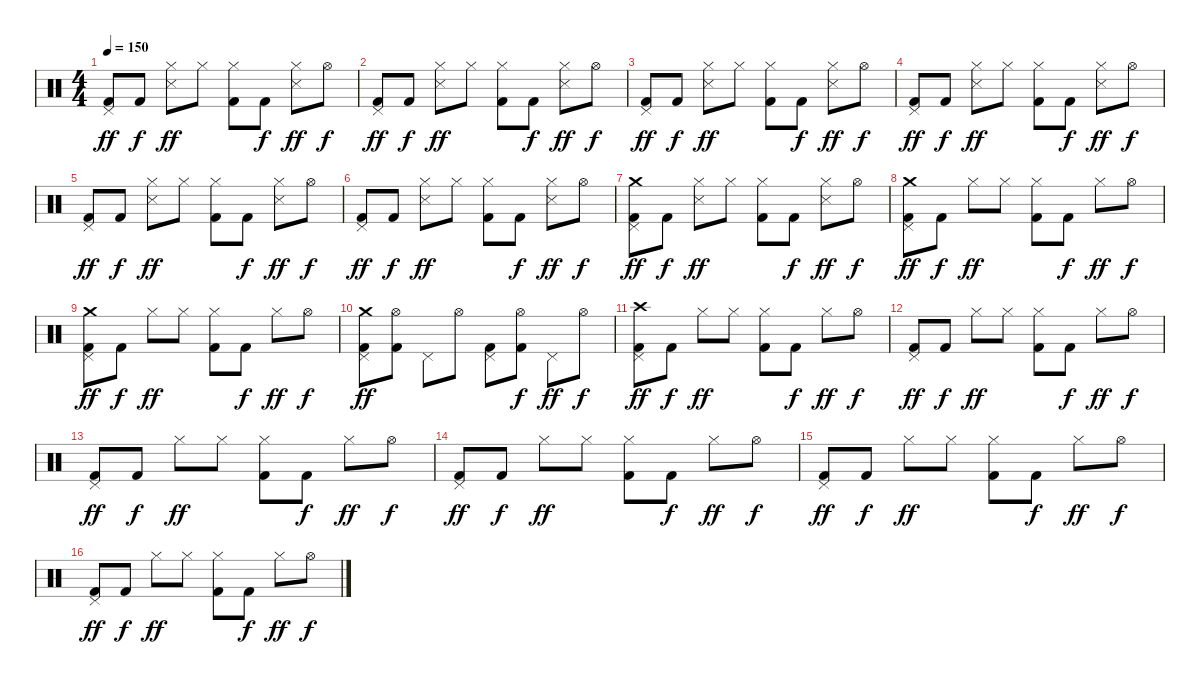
\track "" {instrument percussion}
\staff {score}
\articulation defaults
\ts (4 4)
\tempo 150
\clef neutral
\ks c
("Pedal Hi-Hat (hit)" "Kick (hit) 2").8{dy ff} "Kick (hit) 2".8{dy f} ("Hi-Hat (closed)" "Snare (side stick) 3").8{dy ff} "Hi-Hat (closed)".8 ("Hi-Hat (closed)" "Kick (hit) 2").8 "Kick (hit) 2".8{dy f} ("Hi-Hat (closed)" "Snare (side stick) 3").8{dy ff} "Hi-Hat (open)".8{dy f} |
("Pedal Hi-Hat (hit)" "Kick (hit) 2").8{dy ff} "Kick (hit) 2".8{dy f} ("Hi-Hat (closed)" "Snare (side stick) 3").8{dy ff} "Hi-Hat (closed)".8 ("Hi-Hat (closed)" "Kick (hit) 2").8 "Kick (hit) 2".8{dy f} ("Hi-Hat (closed)" "Snare (side stick) 3").8{dy ff} "Hi-Hat (open)".8{dy f} |
("Pedal Hi-Hat (hit)" "Kick (hit) 2").8{dy ff} "Kick (hit) 2".8{dy f} ("Hi-Hat (closed)" "Snare (side stick) 3").8{dy ff} "Hi-Hat (closed)".8 ("Hi-Hat (closed)" "Kick (hit) 2").8 "Kick (hit) 2".8{dy f} ("Hi-Hat (closed)" "Snare (side stick) 3").8{dy ff} "Hi-Hat (open)".8{dy f} |
("Pedal Hi-Hat (hit)" "Kick (hit) 2").8{dy ff} "Kick (hit) 2".8{dy f} ("Hi-Hat (closed)" "Snare (side stick) 3").8{dy ff} "Hi-Hat (closed)".8 ("Hi-Hat (closed)" "Kick (hit) 2").8 "Kick (hit) 2".8{dy f} ("Hi-Hat (closed)" "Snare (side stick) 3").8{dy ff} "Hi-Hat (open)".8{dy f} |
("Pedal Hi-Hat (hit)" "Kick (hit) 2").8{dy ff} "Kick (hit) 2".8{dy f} ("Hi-Hat (closed)" "Snare (side stick) 3").8{dy ff} "Hi-Hat (closed)".8 ("Hi-Hat (closed)" "Kick (hit) 2").8 "Kick (hit) 2".8{dy f} ("Hi-Hat (closed)" "Snare (side stick) 3").8{dy ff} "Hi-Hat (open)".8{dy f} |
("Pedal Hi-Hat (hit)" "Kick (hit) 2").8{dy ff} "Kick (hit) 2".8{dy f} ("Hi-Hat (closed)" "Snare (side stick) 3").8{dy ff} "Hi-Hat (closed)".8 ("Hi-Hat (closed)" "Kick (hit) 2").8 "Kick (hit) 2".8{dy f} ("Hi-Hat (closed)" "Snare (side stick) 3").8{dy ff} "Hi-Hat (open)".8{dy f} |
("Crash medium (hit)" "Pedal Hi-Hat (hit)" "Kick (hit) 2").8{dy ff} "Kick (hit) 2".8{dy f} ("Hi-Hat (closed)" "Snare (side stick) 3").8{dy ff} "Hi-Hat (closed)".8 ("Hi-Hat (closed)" "Kick (hit) 2").8 "Kick (hit) 2".8{dy f} ("Hi-Hat (closed)" "Snare (side stick) 3").8{dy ff} "Hi-Hat (open)".8{dy f} |
("Crash medium (hit)" "Pedal Hi-Hat (hit)" "Kick (hit) 2").8{dy ff} "Kick (hit) 2".8{dy f} "Hi-Hat (closed)".8{dy ff} "Hi-Hat (closed)".8 ("Hi-Hat (closed)" "Kick (hit) 2").8 "Kick (hit) 2".8{dy f} "Hi-Hat (closed)".8{dy ff} "Hi-Hat (open)".8{dy f} |
("Crash medium (hit)" "Pedal Hi-Hat (hit)" "Kick (hit) 2").8{dy ff} "Kick (hit) 2".8{dy f} "Hi-Hat (closed)".8{dy ff} "Hi-Hat (closed)".8 ("Hi-Hat (closed)" "Kick (hit) 2").8 "Kick (hit) 2".8{dy f} "Hi-Hat (closed)".8{dy ff} "Hi-Hat (open)".8{dy f} |
("Crash medium (hit)" "Pedal Hi-Hat (hit)" "Kick (hit) 2").8{dy ff} ("Hi-Hat (open)" "Kick (hit) 2").8 "Pedal Hi-Hat (hit)".8 "Hi-Hat (open)".8 ("Pedal Hi-Hat (hit)" "Kick (hit) 2").8 ("Hi-Hat (open)" "Kick (hit) 2").8{dy f} "Pedal Hi-Hat (hit)".8{dy ff} "Hi-Hat (open)".8{dy f} |
("Crash high (hit)" "Pedal Hi-Hat (hit)" "Kick (hit) 2").8{dy ff} "Kick (hit) 2".8{dy f} "Hi-Hat (closed)".8{dy ff} "Hi-Hat (closed)".8 ("Hi-Hat (closed)" "Kick (hit) 2").8 "Kick (hit) 2".8{dy f} "Hi-Hat (closed)".8{dy ff} "Hi-Hat (open)".8{dy f} |
("Pedal Hi-Hat (hit)" "Kick (hit) 2").8{dy ff} "Kick (hit) 2".8{dy f} "Hi-Hat (closed)".8{dy ff} "Hi-Hat (closed)".8 ("Hi-Hat (closed)" "Kick (hit) 2").8 "Kick (hit) 2".8{dy f} "Hi-Hat (closed)".8{dy ff} "Hi-Hat (open)".8{dy f} |
("Pedal Hi-Hat (hit)" "Kick (hit) 2").8{dy ff} "Kick (hit) 2".8{dy f} "Hi-Hat (closed)".8{dy ff} "Hi-Hat (closed)".8 ("Hi-Hat (closed)" "Kick (hit) 2").8 "Kick (hit) 2".8{dy f} "Hi-Hat (closed)".8{dy ff} "Hi-Hat (open)".8{dy f} |
("Pedal Hi-Hat (hit)" "Kick (hit) 2").8{dy ff} "Kick (hit) 2".8{dy f} "Hi-Hat (closed)".8{dy ff} "Hi-Hat (closed)".8 ("Hi-Hat (closed)" "Kick (hit) 2").8 "Kick (hit) 2".8{dy f} "Hi-Hat (closed)".8{dy ff} "Hi-Hat (open)".8{dy f} |
("Pedal Hi-Hat (hit)" "Kick (hit) 2").8{dy ff} "Kick (hit) 2".8{dy f} "Hi-Hat (closed)".8{dy ff} "Hi-Hat (closed)".8 ("Hi-Hat (closed)" "Kick (hit) 2").8 "Kick (hit) 2".8{dy f} "Hi-Hat (closed)".8{dy ff} "Hi-Hat (open)".8{dy f} |
("Pedal Hi-Hat (hit)" "Kick (hit) 2").8{dy ff} "Kick (hit) 2".8{dy f} "Hi-Hat (closed)".8{dy ff} "Hi-Hat (closed)".8 ("Hi-Hat (closed)" "Kick (hit) 2").8 "Kick (hit) 2".8{dy f} "Hi-Hat (closed)".8{dy ff} "Hi-Hat (open)".8{dy f}
